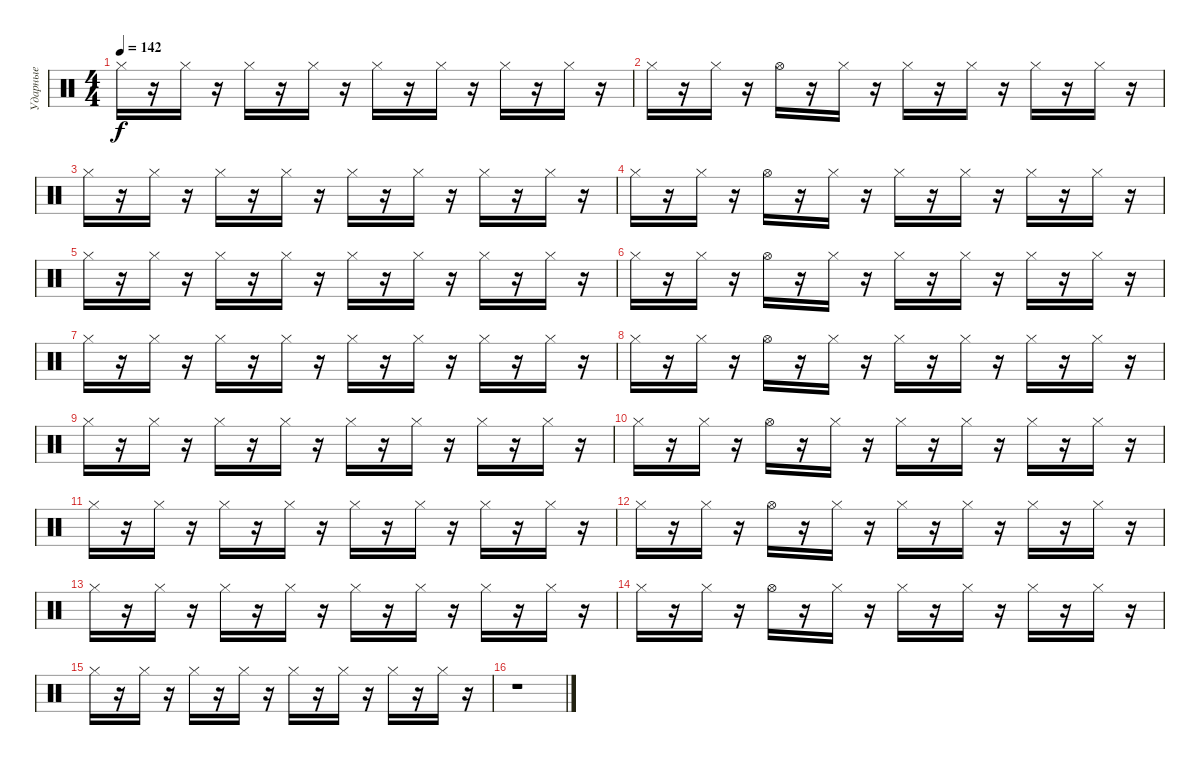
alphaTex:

\track ("Ударные" "Ударные") {instrument percussion}
\staff {score}
\articulation defaults
\ts (4 4)
\tempo 142
\clef neutral
\ks c "Hi-Hat (closed)".16{dy f}
r.16 "Hi-Hat (closed)".16 r.16 "Hi-Hat (closed)".16 r.16 "Hi-Hat (closed)".16 r.16 "Hi-Hat (closed)".16 r.16 "Hi-Hat (closed)".16 r.16 "Hi-Hat (closed)".16 r.16 "Hi-Hat (closed)".16 r.16 |
"Hi-Hat (closed)".16 r.16 "Hi-Hat (closed)".16 r.16 "Hi-Hat (open)".16 r.16 "Hi-Hat (closed)".16 r.16 "Hi-Hat (closed)".16 r.16 "Hi-Hat (closed)".16 r.16 "Hi-Hat (closed)".16 r.16 "Hi-Hat (closed)".16 r.16 |
"Hi-Hat (closed)".16 r.16 "Hi-Hat (closed)".16 r.16 "Hi-Hat (closed)".16 r.16 "Hi-Hat (closed)".16 r.16 "Hi-Hat (closed)".16 r.16 "Hi-Hat (closed)".16 r.16 "Hi-Hat (closed)".16 r.16 "Hi-Hat (closed)".16 r.16 |
"Hi-Hat (closed)".16 r.16 "Hi-Hat (closed)".16 r.16 "Hi-Hat (open)".16 r.16 "Hi-Hat (closed)".16 r.16 "Hi-Hat (closed)".16 r.16 "Hi-Hat (closed)".16 r.16 "Hi-Hat (closed)".16 r.16 "Hi-Hat (closed)".16 r.16 |
"Hi-Hat (closed)".16 r.16 "Hi-Hat (closed)".16 r.16 "Hi-Hat (closed)".16 r.16 "Hi-Hat (closed)".16 r.16 "Hi-Hat (closed)".16 r.16 "Hi-Hat (closed)".16 r.16 "Hi-Hat (closed)".16 r.16 "Hi-Hat (closed)".16 r.16 |
"Hi-Hat (closed)".16 r.16 "Hi-Hat (closed)".16 r.16 "Hi-Hat (open)".16 r.16 "Hi-Hat (closed)".16 r.16 "Hi-Hat (closed)".16 r.16 "Hi-Hat (closed)".16 r.16 "Hi-Hat (closed)".16 r.16 "Hi-Hat (closed)".16 r.16 |
"Hi-Hat (closed)".16 r.16 "Hi-Hat (closed)".16 r.16 "Hi-Hat (closed)".16 r.16 "Hi-Hat (closed)".16 r.16 "Hi-Hat (closed)".16 r.16 "Hi-Hat (closed)".16 r.16 "Hi-Hat (closed)".16 r.16 "Hi-Hat (closed)".16 r.16 |
"Hi-Hat (closed)".16 r.16 "Hi-Hat (closed)".16 r.16 "Hi-Hat (open)".16 r.16 "Hi-Hat (closed)".16 r.16 "Hi-Hat (closed)".16 r.16 "Hi-Hat (closed)".16 r.16 "Hi-Hat (closed)".16 r.16 "Hi-Hat (closed)".16 r.16 |
"Hi-Hat (closed)".16 r.16 "Hi-Hat (closed)".16 r.16 "Hi-Hat (closed)".16 r.16 "Hi-Hat (closed)".16 r.16 "Hi-Hat (closed)".16 r.16 "Hi-Hat (closed)".16 r.16 "Hi-Hat (closed)".16 r.16 "Hi-Hat (closed)".16 r.16 |
"Hi-Hat (closed)".16 r.16 "Hi-Hat (closed)".16 r.16 "Hi-Hat (open)".16 r.16 "Hi-Hat (closed)".16 r.16 "Hi-Hat (closed)".16 r.16 "Hi-Hat (closed)".16 r.16 "Hi-Hat (closed)".16 r.16 "Hi-Hat (closed)".16 r.16 |
"Hi-Hat (closed)".16 r.16 "Hi-Hat (closed)".16 r.16 "Hi-Hat (closed)".16 r.16 "Hi-Hat (closed)".16 r.16 "Hi-Hat (closed)".16 r.16 "Hi-Hat (closed)".16 r.16 "Hi-Hat (closed)".16 r.16 "Hi-Hat (closed)".16 r.16 |
"Hi-Hat (closed)".16 r.16 "Hi-Hat (closed)".16 r.16 "Hi-Hat (open)".16 r.16 "Hi-Hat (closed)".16 r.16 "Hi-Hat (closed)".16 r.16 "Hi-Hat (closed)".16 r.16 "Hi-Hat (closed)".16 r.16 "Hi-Hat (closed)".16 r.16 |
"Hi-Hat (closed)".16 r.16 "Hi-Hat (closed)".16 r.16 "Hi-Hat (closed)".16 r.16 "Hi-Hat (closed)".16 r.16 "Hi-Hat (closed)".16 r.16 "Hi-Hat (closed)".16 r.16 "Hi-Hat (closed)".16 r.16 "Hi-Hat (closed)".16 r.16 |
"Hi-Hat (closed)".16 r.16 "Hi-Hat (closed)".16 r.16 "Hi-Hat (open)".16 r.16 "Hi-Hat (closed)".16 r.16 "Hi-Hat (closed)".16 r.16 "Hi-Hat (closed)".16 r.16 "Hi-Hat (closed)".16 r.16 "Hi-Hat (closed)".16 r.16 |
"Hi-Hat (closed)".16 r.16 "Hi-Hat (closed)".16 r.16 "Hi-Hat (closed)".16 r.16 "Hi-Hat (closed)".16 r.16 "Hi-Hat (closed)".16 r.16 "Hi-Hat (closed)".16 r.16 "Hi-Hat (closed)".16 r.16 "Hi-Hat (closed)".16 r.16 |
r.1
